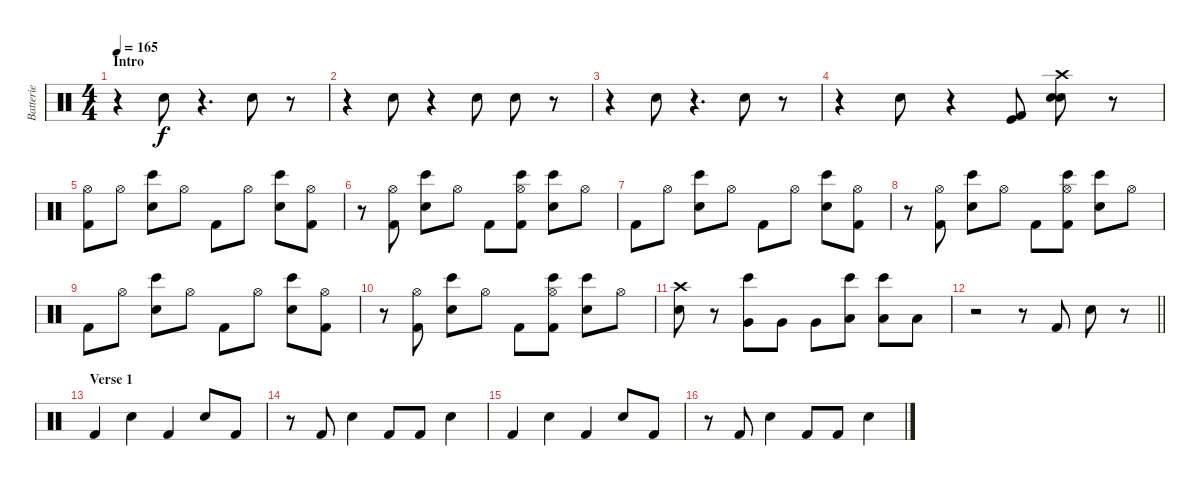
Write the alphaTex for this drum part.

\track ("Batterie" "Batterie") {instrument percussion}
\staff {score}
\articulation defaults
\ts (4 4)
\section ("" "Intro")
\tempo 165
\clef neutral
\ks c
r.4{dy f} "Electric Snare (hit)".8 r.4{d} "Electric Snare (hit)".8 r.8 |
r.4 "Electric Snare (hit)".8 r.4 "Electric Snare (hit)".8 "Electric Snare (hit)".8 r.8 |
r.4 "Electric Snare (hit)".8 r.4{d} "Electric Snare (hit)".8 r.8 |
r.4 "Electric Snare (hit)".8 r.4 ("Kick (hit)" "Kick (hit) 2").8 ("Crash high (hit)" "Snare (hit) 2" "Electric Snare (hit)").8 r.8 |
("Hi-Hat (open)" "Kick (hit) 2").8 "Hi-Hat (open)".8 ("Electric Snare (hit)" "Bongo High (hit)").8 "Hi-Hat (open)".8 "Kick (hit) 2".8 "Hi-Hat (open)".8 ("Electric Snare (hit)" "Bongo High (hit)").8 ("Hi-Hat (open)" "Kick (hit) 2").8 |
r.8 ("Hi-Hat (open)" "Kick (hit) 2").8 ("Electric Snare (hit)" "Bongo High (hit)").8 "Hi-Hat (open)".8 "Kick (hit) 2".8 ("Hi-Hat (open)" "Kick (hit) 2" "Bongo High (hit)").8 ("Electric Snare (hit)" "Bongo High (hit)").8 "Hi-Hat (open)".8 |
"Kick (hit) 2".8 "Hi-Hat (open)".8 ("Electric Snare (hit)" "Bongo High (hit)").8 "Hi-Hat (open)".8 "Kick (hit) 2".8 "Hi-Hat (open)".8 ("Electric Snare (hit)" "Bongo High (hit)").8 ("Hi-Hat (open)" "Kick (hit) 2").8 |
r.8 ("Hi-Hat (open)" "Kick (hit) 2").8 ("Electric Snare (hit)" "Bongo High (hit)").8 "Hi-Hat (open)".8 "Kick (hit) 2".8 ("Hi-Hat (open)" "Kick (hit) 2" "Bongo High (hit)").8 ("Electric Snare (hit)" "Bongo High (hit)").8 "Hi-Hat (open)".8 |
"Kick (hit) 2".8 "Hi-Hat (open)".8 ("Electric Snare (hit)" "Bongo High (hit)").8 "Hi-Hat (open)".8 "Kick (hit) 2".8 "Hi-Hat (open)".8 ("Electric Snare (hit)" "Bongo High (hit)").8 ("Hi-Hat (open)" "Kick (hit) 2").8 |
r.8 ("Hi-Hat (open)" "Kick (hit) 2").8 ("Electric Snare (hit)" "Bongo High (hit)").8 "Hi-Hat (open)".8 "Kick (hit) 2".8 ("Hi-Hat (open)" "Kick (hit) 2" "Bongo High (hit)").8 ("Electric Snare (hit)" "Bongo High (hit)").8 "Hi-Hat (open)".8 |
("Crash high (hit)" "Electric Snare (hit)").8 r.8 ("Very Low Tom (hit)" "Bongo High (hit)").8 "Very Low Tom (hit)".8 "Very Low Tom (hit)".8 ("Low Floor Tom (hit)" "Bongo High (hit)").8 ("Low Floor Tom (hit)" "Bongo High (hit)").8 "Low Floor Tom (hit)".8 |
\barLineRight lightlight
r.2 r.8 "Kick (hit) 2".8 "Electric Snare (hit)".8 r.8 |
\section ("" "Verse 1")
"Kick (hit) 2".4 "Electric Snare (hit)".4 "Kick (hit) 2".4 "Electric Snare (hit)".8 "Kick (hit) 2".8 |
r.8 "Kick (hit) 2".8 "Electric Snare (hit)".4 "Kick (hit) 2".8 "Kick (hit) 2".8 "Electric Snare (hit)".4 |
"Kick (hit) 2".4 "Electric Snare (hit)".4 "Kick (hit) 2".4 "Electric Snare (hit)".8 "Kick (hit) 2".8 |
r.8 "Kick (hit) 2".8 "Electric Snare (hit)".4 "Kick (hit) 2".8 "Kick (hit) 2".8 "Electric Snare (hit)".4
